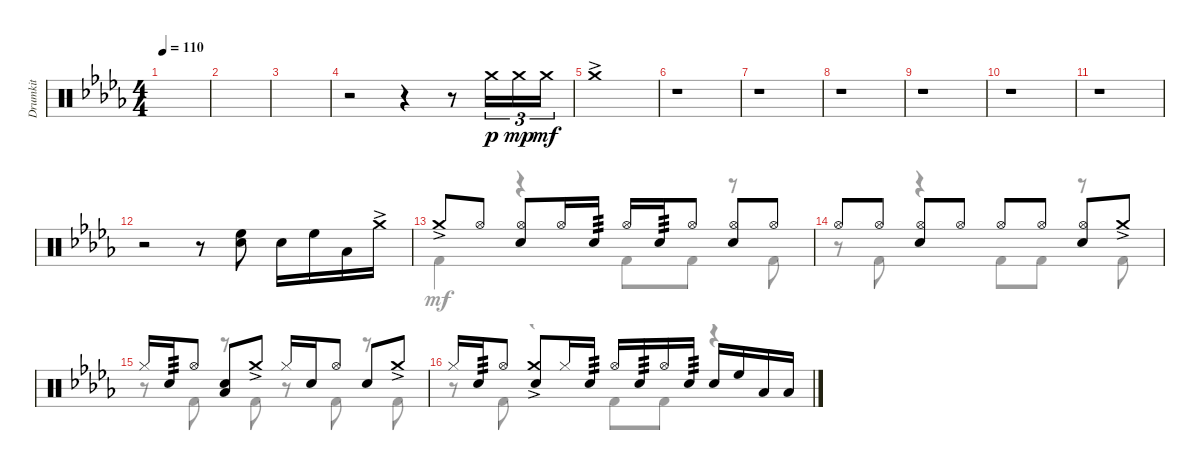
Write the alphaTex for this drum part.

\track ("Drumkit" "Drumkit") {instrument percussion}
\staff {score}
\articulation defaults
\voice
\ts (4 4)
\tempo 110
\clef neutral
\ks db
|
|
|
r.2 r.4 r.8 "Crash medium (hit)".16{tu (3 2) dy p} "Crash medium (hit)".16{tu (3 2) dy mp} "Crash medium (hit)".16{tu (3 2) dy mf} |
\section ("" "")
"Crash medium (hit)"{ac}.1 |
r.1 |
r.1 |
r.1 |
r.1 |
r.1 |
r.1 |
r.2 r.8 ("Snare (hit) 2" "High Floor Tom (hit)").8 "Snare (hit) 2".16 "High Floor Tom (hit)".16 "Low Floor Tom (hit)".16 "Crash medium (hit)"{ac}.16 |
"Crash medium (hit)"{ac}.8 "Hi-Hat (open)".8 ("Hi-Hat (open)" "Snare (hit) 2").8 "Hi-Hat (open)".16 "Snare (hit) 2".16{tp 3} "Hi-Hat (open)".16 "Snare (hit) 2".16{tp 3} "Hi-Hat (open)".8 ("Hi-Hat (open)" "Snare (hit) 2").8 "Hi-Hat (open)".8 |
"Hi-Hat (open)".8 "Hi-Hat (open)".8 ("Hi-Hat (open)" "Snare (hit) 2").8 "Hi-Hat (open)".8 "Hi-Hat (open)".8 "Hi-Hat (open)".8 ("Hi-Hat (open)" "Snare (hit) 2").8 "Crash medium (hit)"{ac}.8 |
"Hi-Hat (closed)".16 "Snare (hit) 2".16{tp 3} "Hi-Hat (open)".8 ("Snare (hit) 2" "Low Floor Tom (hit)").8 "Crash medium (hit)"{ac}.8 "Hi-Hat (closed)".16 "Snare (hit) 2".16 "Hi-Hat (open)".8 "Snare (hit) 2".8 "Crash medium (hit)"{ac}.8 |
"Hi-Hat (closed)".16 "Snare (hit) 2".16{tp 3} "Hi-Hat (open)".8 ("Crash medium (hit)"{ac} "Snare (hit) 2").8 "Hi-Hat (closed)".16 "Snare (hit) 2".16{tp 3} "Hi-Hat (open)".16 "Snare (hit) 2".16{tp 3} "Hi-Hat (open)".16 "Snare (hit) 2".16{tp 3} "Snare (hit) 2".16 "High Floor Tom (hit)".16 "Low Floor Tom (hit)".16 "Low Floor Tom (hit)".16
\voice
\clef neutral
\ottava regular
\simile none
\ks db
|
|
|
|
|
|
|
|
|
|
|
|
"Kick (hit) 2".4 r.4 "Kick (hit) 2".8 "Kick (hit) 2".8 r.8 "Kick (hit) 2".8 |
r.8 "Kick (hit) 2".8 r.4 "Kick (hit) 2".8 "Kick (hit) 2".8 r.8 "Kick (hit) 2".8 |
r.8 "Kick (hit) 2".8 r.8 "Kick (hit) 2".8 r.8 "Kick (hit) 2".8 r.8 "Kick (hit) 2".8 |
r.8 "Kick (hit) 2".8 r.4 "Kick (hit) 2".8 "Kick (hit) 2".8 r.4
